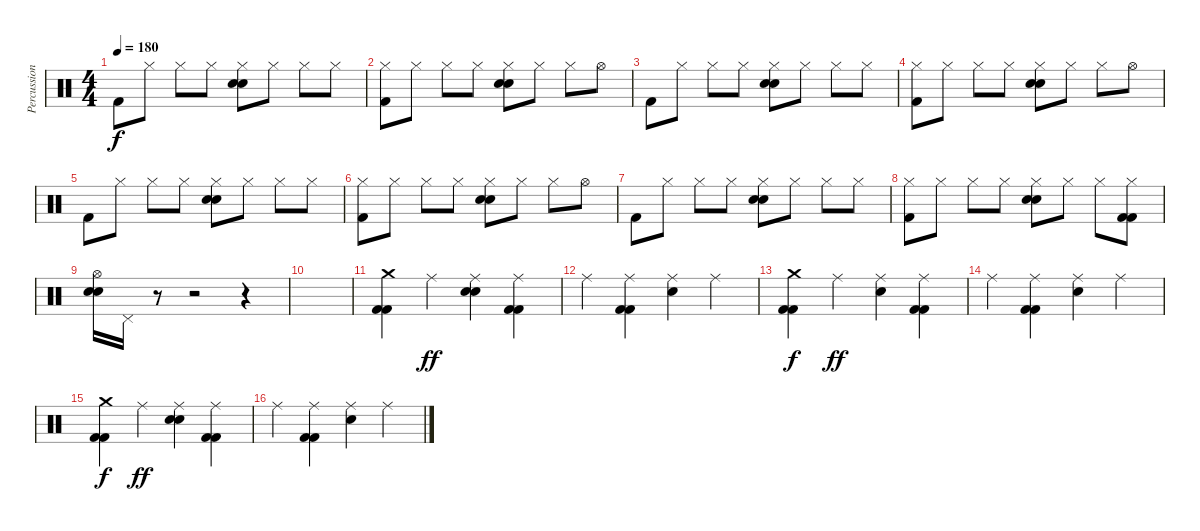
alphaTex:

\track ("Percussion" "Percussion") {instrument percussion}
\staff {score}
\articulation defaults
\ts (4 4)
\tempo 180
\clef neutral
\ks c "Kick (hit) 2".8{dy f} "Hi-Hat (closed)".8 "Hi-Hat (closed)".8 "Hi-Hat (closed)".8
("Hi-Hat (closed)" "Electric Snare (hit)" "Snare (hit) 2").8 "Hi-Hat (closed)".8 "Hi-Hat (closed)".8 "Hi-Hat (closed)".8 |
("Hi-Hat (closed)" "Kick (hit) 2").8 "Hi-Hat (closed)".8 "Hi-Hat (closed)".8 "Hi-Hat (closed)".8 ("Hi-Hat (closed)" "Electric Snare (hit)" "Snare (hit) 2").8 "Hi-Hat (closed)".8 "Hi-Hat (closed)".8 "Hi-Hat (open)".8 |
"Kick (hit) 2".8 "Hi-Hat (closed)".8 "Hi-Hat (closed)".8 "Hi-Hat (closed)".8 ("Hi-Hat (closed)" "Electric Snare (hit)" "Snare (hit) 2").8 "Hi-Hat (closed)".8 "Hi-Hat (closed)".8 "Hi-Hat (closed)".8 |
("Hi-Hat (closed)" "Kick (hit) 2").8 "Hi-Hat (closed)".8 "Hi-Hat (closed)".8 "Hi-Hat (closed)".8 ("Hi-Hat (closed)" "Electric Snare (hit)" "Snare (hit) 2").8 "Hi-Hat (closed)".8 "Hi-Hat (closed)".8 "Hi-Hat (open)".8 |
"Kick (hit) 2".8 "Hi-Hat (closed)".8 "Hi-Hat (closed)".8 "Hi-Hat (closed)".8 ("Hi-Hat (closed)" "Electric Snare (hit)" "Snare (hit) 2").8 "Hi-Hat (closed)".8 "Hi-Hat (closed)".8 "Hi-Hat (closed)".8 |
("Hi-Hat (closed)" "Kick (hit) 2").8 "Hi-Hat (closed)".8 "Hi-Hat (closed)".8 "Hi-Hat (closed)".8 ("Hi-Hat (closed)" "Electric Snare (hit)" "Snare (hit) 2").8 "Hi-Hat (closed)".8 "Hi-Hat (closed)".8 "Hi-Hat (open)".8 |
"Kick (hit) 2".8 "Hi-Hat (closed)".8 "Hi-Hat (closed)".8 "Hi-Hat (closed)".8 ("Hi-Hat (closed)" "Electric Snare (hit)" "Snare (hit) 2").8 "Hi-Hat (closed)".8 "Hi-Hat (closed)".8 "Hi-Hat (closed)".8 |
("Hi-Hat (closed)" "Kick (hit) 2").8 "Hi-Hat (closed)".8 "Hi-Hat (closed)".8 "Hi-Hat (closed)".8 ("Hi-Hat (closed)" "Electric Snare (hit)" "Snare (hit) 2").8 "Hi-Hat (closed)".8 "Hi-Hat (closed)".8 ("Hi-Hat (closed)" "Kick (hit) 2" "Kick (hit) 2").8 |
("Hi-Hat (open)" "Snare (hit) 2" "Electric Snare (hit)").16 "Pedal Hi-Hat (hit)".16 r.8 r.2 r.4 |
|
("Crash medium (hit)" "Kick (hit) 2" "Kick (hit) 2").4 "Ride (middle)".4{dy ff} ("Ride (middle)" "Electric Snare (hit)" "Snare (hit) 2").4 ("Ride (middle)" "Kick (hit) 2" "Kick (hit) 2").4 |
"Ride (middle)".4 ("Ride (middle)" "Kick (hit) 2" "Kick (hit) 2").4 ("Ride (middle)" "Electric Snare (hit)").4 "Ride (middle)".4 |
("Crash medium (hit)" "Kick (hit) 2" "Kick (hit) 2").4{dy f} "Ride (middle)".4{dy ff} ("Ride (middle)" "Electric Snare (hit)").4 ("Ride (middle)" "Kick (hit) 2" "Kick (hit) 2").4 |
"Ride (middle)".4 ("Ride (middle)" "Kick (hit) 2" "Kick (hit) 2").4 ("Ride (middle)" "Electric Snare (hit)").4 "Ride (middle)".4 |
("Crash medium (hit)" "Kick (hit) 2" "Kick (hit) 2").4{dy f} "Ride (middle)".4{dy ff} ("Ride (middle)" "Electric Snare (hit)" "Snare (hit) 2").4 ("Ride (middle)" "Kick (hit) 2" "Kick (hit) 2").4 |
"Ride (middle)".4 ("Ride (middle)" "Kick (hit) 2" "Kick (hit) 2").4 ("Ride (middle)" "Electric Snare (hit)").4 "Ride (middle)".4
